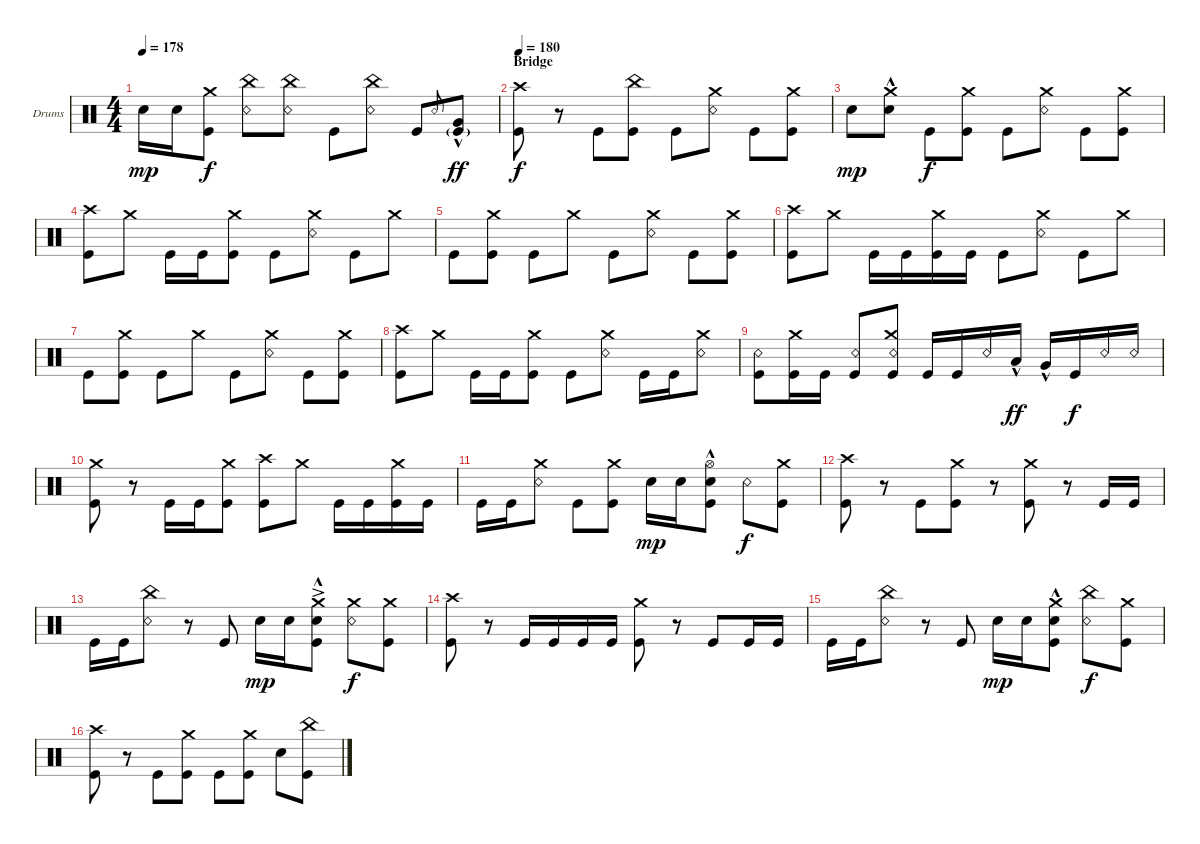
\bracketExtendMode groupsimilarinstruments
\firstSystemTrackNameOrientation horizontal
\otherSystemsTrackNameOrientation horizontal
\track ("Drumkit" "Drums") {instrument percussion}
\staff {score}
\articulation defaults
\ts (4 4)
\tempo 178
\clef neutral
\ks c "Snare (hit) 2".16{dy mp} "Snare (hit) 2".16
("Kick (hit)" "Crash medium (hit)").8{dy f} ("Snare (rim shot)" "China (hit)").8 ("Snare (rim shot)" "China (hit)").8 "Kick (hit)".8 ("Snare (rim shot)" "China (hit)").8 "Kick (hit)".8 "Snare (rim shot)".8{gr onbeat} ("Very Low Tom (hit)"{hac} "Kick (hit)"{g}).8{dy ff} |
\section ("" "Bridge")
\tempo 180
("Kick (hit)" "Crash high (hit)").8{dy f} r.8 "Kick (hit)".8 ("Kick (hit)" "China (hit)").8 "Kick (hit)".8 ("Snare (rim shot)" "Crash medium (hit)").8 "Kick (hit)".8 ("Kick (hit)" "Crash medium (hit)").8 |
"Snare (hit) 2".8{dy mp} ("Snare (hit) 2" "Crash medium (hit)"{hac}).8 "Kick (hit)".8{dy f} ("Kick (hit)" "Crash medium (hit)").8 "Kick (hit)".8 ("Snare (rim shot)" "Crash medium (hit)").8 "Kick (hit)".8 ("Kick (hit)" "Crash medium (hit)").8 |
("Kick (hit)" "Crash high (hit)").8 "Crash medium (hit)".8 "Kick (hit)".16 "Kick (hit)".16 ("Kick (hit)" "Crash medium (hit)").8 "Kick (hit)".8 ("Snare (rim shot)" "Crash medium (hit)").8 "Kick (hit)".8 "Crash medium (hit)".8 |
"Kick (hit)".8 ("Kick (hit)" "Crash medium (hit)").8 "Kick (hit)".8 "Crash medium (hit)".8 "Kick (hit)".8 ("Snare (rim shot)" "Crash medium (hit)").8 "Kick (hit)".8 ("Kick (hit)" "Crash medium (hit)").8 |
("Kick (hit)" "Crash high (hit)").8 "Crash medium (hit)".8 "Kick (hit)".16 "Kick (hit)".16 ("Kick (hit)" "Crash medium (hit)").16 "Kick (hit)".16 "Kick (hit)".8 ("Snare (rim shot)" "Crash medium (hit)").8 "Kick (hit)".8 "Crash medium (hit)".8 |
"Kick (hit)".8 ("Kick (hit)" "Crash medium (hit)").8 "Kick (hit)".8 "Crash medium (hit)".8 "Kick (hit)".8 ("Snare (rim shot)" "Crash medium (hit)").8 "Kick (hit)".8 ("Kick (hit)" "Crash medium (hit)").8 |
("Kick (hit)" "Crash high (hit)").8 "Crash medium (hit)".8 "Kick (hit)".16 "Kick (hit)".16 ("Kick (hit)" "Crash medium (hit)").8 "Kick (hit)".8 ("Snare (rim shot)" "Crash medium (hit)").8 "Kick (hit)".16 "Kick (hit)".16 ("Snare (rim shot)" "Crash medium (hit)").8 |
("Kick (hit)" "Snare (rim shot)").8 ("Kick (hit)" "Crash medium (hit)").16 "Kick (hit)".16 ("Kick (hit)" "Snare (rim shot)").8 ("Kick (hit)" "Snare (rim shot)" "Crash medium (hit)").8 "Kick (hit)".16 "Kick (hit)".16 "Snare (rim shot)".16 "Low Tom (hit)"{hac}.16{dy ff} "Very Low Tom (hit)"{hac}.16 "Kick (hit)".16{dy f} "Snare (rim shot)".16 "Snare (rim shot)".16 |
("Kick (hit)" "Crash medium (hit)").8 r.8 "Kick (hit)".16 "Kick (hit)".16 ("Kick (hit)" "Crash medium (hit)").8 ("Kick (hit)" "Crash high (hit)").8 "Crash medium (hit)".8 "Kick (hit)".16 "Kick (hit)".16 ("Kick (hit)" "Crash medium (hit)").16 "Kick (hit)".16 |
"Kick (hit)".16 "Kick (hit)".16 ("Snare (rim shot)" "Crash medium (hit)").8 "Kick (hit)".8 ("Kick (hit)" "Crash medium (hit)").8 "Snare (hit) 2".16{dy mp} "Snare (hit) 2".16 ("Snare (hit) 2" "Hi-Hat (open)"{hac} "Kick (hit)"{hac}).8 "Snare (rim shot)".8{dy f} ("Kick (hit)" "Crash medium (hit)").8 |
("Kick (hit)" "Crash high (hit)").8 r.8 "Kick (hit)".8 ("Kick (hit)" "Crash medium (hit)").8 r.8 ("Kick (hit)" "Crash medium (hit)").8 r.8 "Kick (hit)".16 "Kick (hit)".16 |
"Kick (hit)".16 "Kick (hit)".16 ("Snare (rim shot)" "China (hit)").8 r.8 "Kick (hit)".8 "Snare (hit) 2".16{dy mp} "Snare (hit) 2".16 ("Snare (hit) 2" "Crash medium (hit)"{ac} "Kick (hit)"{hac}).8 ("Snare (rim shot)" "Crash medium (hit)").8{dy f} ("Kick (hit)" "Crash medium (hit)").8 |
("Kick (hit)" "Crash high (hit)").8 r.8 "Kick (hit)".16 "Kick (hit)".16 "Kick (hit)".16 "Kick (hit)".16 ("Kick (hit)" "Crash medium (hit)").8 r.8 "Kick (hit)".8 "Kick (hit)".16 "Kick (hit)".16 |
"Kick (hit)".16 "Kick (hit)".16 ("Snare (rim shot)" "China (hit)").8 r.8 "Kick (hit)".8 "Snare (hit) 2".16{dy mp} "Snare (hit) 2".16 ("Snare (hit) 2" "Crash medium (hit)"{hac} "Kick (hit)"{hac}).8 ("Snare (rim shot)" "China (hit)").8{dy f} ("Kick (hit)" "Crash medium (hit)").8 |
("Kick (hit)" "Crash high (hit)").8 r.8 "Kick (hit)".8 ("Kick (hit)" "Crash medium (hit)").8 "Kick (hit)".8 ("Kick (hit)" "Crash medium (hit)").8 "Snare (hit) 2".8 ("Kick (hit)" "China (hit)").8
